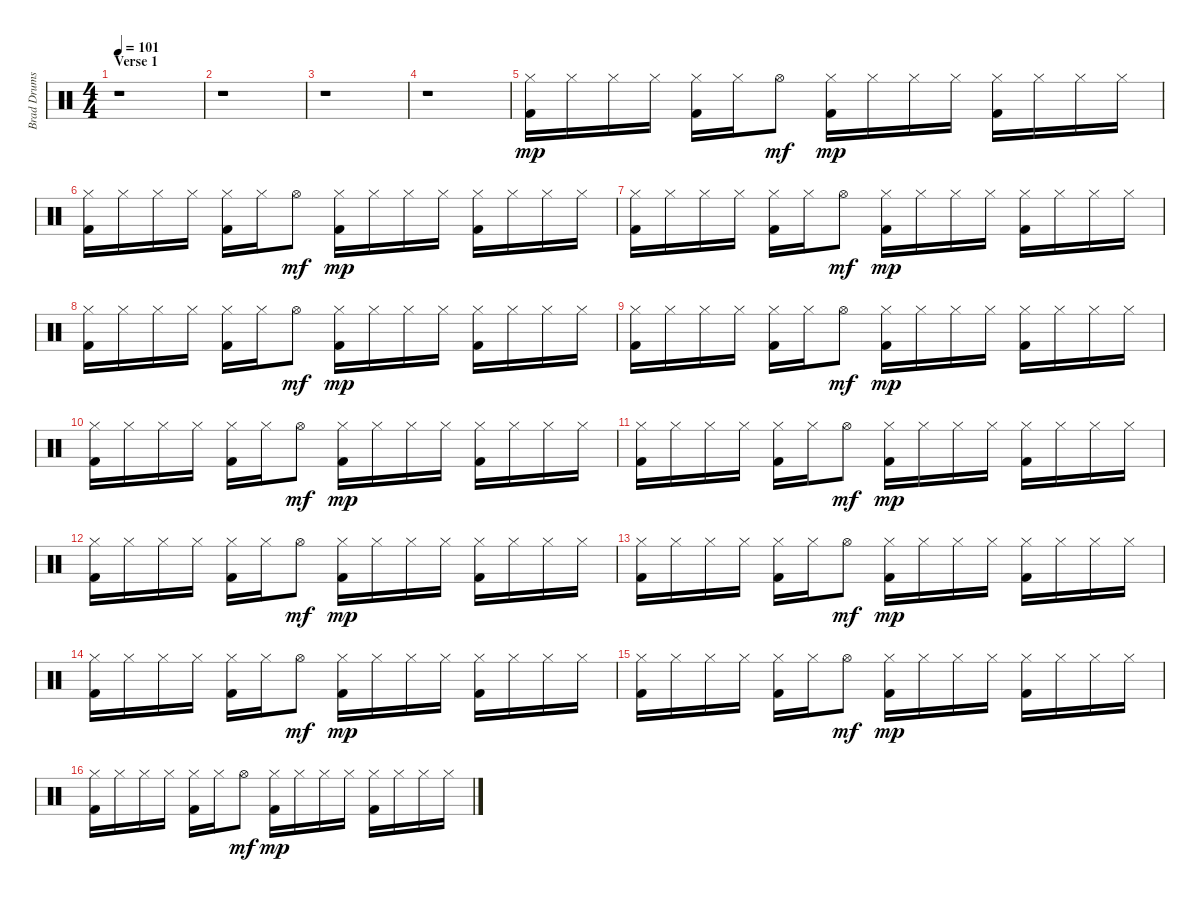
\track ("Brad Drums" "Brad Drums") {instrument percussion}
\staff {score}
\articulation defaults
\ts (4 4)
\section ("" "Verse 1")
\tempo 101
\clef neutral
\ks c
r.1{dy mp} |
r.1 |
r.1 |
r.1 |
("Hi-Hat (closed)" "Kick (hit) 2").16 "Hi-Hat (closed)".16 "Hi-Hat (closed)".16 "Hi-Hat (closed)".16 ("Hi-Hat (closed)" "Kick (hit) 2").16 "Hi-Hat (closed)".16 "Hi-Hat (open)".8{dy mf} ("Hi-Hat (closed)" "Kick (hit) 2").16{dy mp} "Hi-Hat (closed)".16 "Hi-Hat (closed)".16 "Hi-Hat (closed)".16 ("Hi-Hat (closed)" "Kick (hit) 2").16 "Hi-Hat (closed)".16 "Hi-Hat (closed)".16 "Hi-Hat (closed)".16 |
("Hi-Hat (closed)" "Kick (hit) 2").16 "Hi-Hat (closed)".16 "Hi-Hat (closed)".16 "Hi-Hat (closed)".16 ("Hi-Hat (closed)" "Kick (hit) 2").16 "Hi-Hat (closed)".16 "Hi-Hat (open)".8{dy mf} ("Hi-Hat (closed)" "Kick (hit) 2").16{dy mp} "Hi-Hat (closed)".16 "Hi-Hat (closed)".16 "Hi-Hat (closed)".16 ("Hi-Hat (closed)" "Kick (hit) 2").16 "Hi-Hat (closed)".16 "Hi-Hat (closed)".16 "Hi-Hat (closed)".16 |
("Hi-Hat (closed)" "Kick (hit) 2").16 "Hi-Hat (closed)".16 "Hi-Hat (closed)".16 "Hi-Hat (closed)".16 ("Hi-Hat (closed)" "Kick (hit) 2").16 "Hi-Hat (closed)".16 "Hi-Hat (open)".8{dy mf} ("Hi-Hat (closed)" "Kick (hit) 2").16{dy mp} "Hi-Hat (closed)".16 "Hi-Hat (closed)".16 "Hi-Hat (closed)".16 ("Hi-Hat (closed)" "Kick (hit) 2").16 "Hi-Hat (closed)".16 "Hi-Hat (closed)".16 "Hi-Hat (closed)".16 |
("Hi-Hat (closed)" "Kick (hit) 2").16 "Hi-Hat (closed)".16 "Hi-Hat (closed)".16 "Hi-Hat (closed)".16 ("Hi-Hat (closed)" "Kick (hit) 2").16 "Hi-Hat (closed)".16 "Hi-Hat (open)".8{dy mf} ("Hi-Hat (closed)" "Kick (hit) 2").16{dy mp} "Hi-Hat (closed)".16 "Hi-Hat (closed)".16 "Hi-Hat (closed)".16 ("Hi-Hat (closed)" "Kick (hit) 2").16 "Hi-Hat (closed)".16 "Hi-Hat (closed)".16 "Hi-Hat (closed)".16 |
("Hi-Hat (closed)" "Kick (hit) 2").16 "Hi-Hat (closed)".16 "Hi-Hat (closed)".16 "Hi-Hat (closed)".16 ("Hi-Hat (closed)" "Kick (hit) 2").16 "Hi-Hat (closed)".16 "Hi-Hat (open)".8{dy mf} ("Hi-Hat (closed)" "Kick (hit) 2").16{dy mp} "Hi-Hat (closed)".16 "Hi-Hat (closed)".16 "Hi-Hat (closed)".16 ("Hi-Hat (closed)" "Kick (hit) 2").16 "Hi-Hat (closed)".16 "Hi-Hat (closed)".16 "Hi-Hat (closed)".16 |
("Hi-Hat (closed)" "Kick (hit) 2").16 "Hi-Hat (closed)".16 "Hi-Hat (closed)".16 "Hi-Hat (closed)".16 ("Hi-Hat (closed)" "Kick (hit) 2").16 "Hi-Hat (closed)".16 "Hi-Hat (open)".8{dy mf} ("Hi-Hat (closed)" "Kick (hit) 2").16{dy mp} "Hi-Hat (closed)".16 "Hi-Hat (closed)".16 "Hi-Hat (closed)".16 ("Hi-Hat (closed)" "Kick (hit) 2").16 "Hi-Hat (closed)".16 "Hi-Hat (closed)".16 "Hi-Hat (closed)".16 |
("Hi-Hat (closed)" "Kick (hit) 2").16 "Hi-Hat (closed)".16 "Hi-Hat (closed)".16 "Hi-Hat (closed)".16 ("Hi-Hat (closed)" "Kick (hit) 2").16 "Hi-Hat (closed)".16 "Hi-Hat (open)".8{dy mf} ("Hi-Hat (closed)" "Kick (hit) 2").16{dy mp} "Hi-Hat (closed)".16 "Hi-Hat (closed)".16 "Hi-Hat (closed)".16 ("Hi-Hat (closed)" "Kick (hit) 2").16 "Hi-Hat (closed)".16 "Hi-Hat (closed)".16 "Hi-Hat (closed)".16 |
("Hi-Hat (closed)" "Kick (hit) 2").16 "Hi-Hat (closed)".16 "Hi-Hat (closed)".16 "Hi-Hat (closed)".16 ("Hi-Hat (closed)" "Kick (hit) 2").16 "Hi-Hat (closed)".16 "Hi-Hat (open)".8{dy mf} ("Hi-Hat (closed)" "Kick (hit) 2").16{dy mp} "Hi-Hat (closed)".16 "Hi-Hat (closed)".16 "Hi-Hat (closed)".16 ("Hi-Hat (closed)" "Kick (hit) 2").16 "Hi-Hat (closed)".16 "Hi-Hat (closed)".16 "Hi-Hat (closed)".16 |
("Hi-Hat (closed)" "Kick (hit) 2").16 "Hi-Hat (closed)".16 "Hi-Hat (closed)".16 "Hi-Hat (closed)".16 ("Hi-Hat (closed)" "Kick (hit) 2").16 "Hi-Hat (closed)".16 "Hi-Hat (open)".8{dy mf} ("Hi-Hat (closed)" "Kick (hit) 2").16{dy mp} "Hi-Hat (closed)".16 "Hi-Hat (closed)".16 "Hi-Hat (closed)".16 ("Hi-Hat (closed)" "Kick (hit) 2").16 "Hi-Hat (closed)".16 "Hi-Hat (closed)".16 "Hi-Hat (closed)".16 |
("Hi-Hat (closed)" "Kick (hit) 2").16 "Hi-Hat (closed)".16 "Hi-Hat (closed)".16 "Hi-Hat (closed)".16 ("Hi-Hat (closed)" "Kick (hit) 2").16 "Hi-Hat (closed)".16 "Hi-Hat (open)".8{dy mf} ("Hi-Hat (closed)" "Kick (hit) 2").16{dy mp} "Hi-Hat (closed)".16 "Hi-Hat (closed)".16 "Hi-Hat (closed)".16 ("Hi-Hat (closed)" "Kick (hit) 2").16 "Hi-Hat (closed)".16 "Hi-Hat (closed)".16 "Hi-Hat (closed)".16 |
("Hi-Hat (closed)" "Kick (hit) 2").16 "Hi-Hat (closed)".16 "Hi-Hat (closed)".16 "Hi-Hat (closed)".16 ("Hi-Hat (closed)" "Kick (hit) 2").16 "Hi-Hat (closed)".16 "Hi-Hat (open)".8{dy mf} ("Hi-Hat (closed)" "Kick (hit) 2").16{dy mp} "Hi-Hat (closed)".16 "Hi-Hat (closed)".16 "Hi-Hat (closed)".16 ("Hi-Hat (closed)" "Kick (hit) 2").16 "Hi-Hat (closed)".16 "Hi-Hat (closed)".16 "Hi-Hat (closed)".16 |
("Hi-Hat (closed)" "Kick (hit) 2").16 "Hi-Hat (closed)".16 "Hi-Hat (closed)".16 "Hi-Hat (closed)".16 ("Hi-Hat (closed)" "Kick (hit) 2").16 "Hi-Hat (closed)".16 "Hi-Hat (open)".8{dy mf} ("Hi-Hat (closed)" "Kick (hit) 2").16{dy mp} "Hi-Hat (closed)".16 "Hi-Hat (closed)".16 "Hi-Hat (closed)".16 ("Hi-Hat (closed)" "Kick (hit) 2").16 "Hi-Hat (closed)".16 "Hi-Hat (closed)".16 "Hi-Hat (closed)".16
